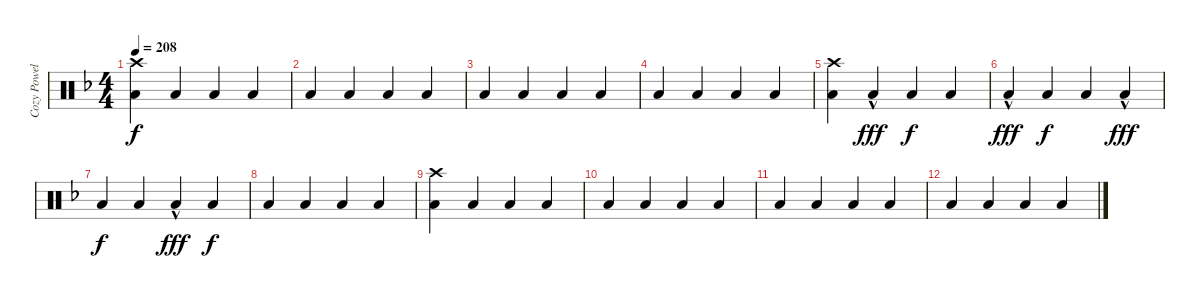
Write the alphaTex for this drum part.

\track ("Cozy Powell" "Cozy Powel") {instrument percussion}
\staff {score}
\articulation defaults
\ts (4 4)
\tempo 208
\clef neutral
\ks f
("Crash high (hit)" "Low Tom (hit)").4{dy f} "Low Tom (hit)".4{volume 10} "Low Tom (hit)".4 "Low Tom (hit)".4 |
"Low Tom (hit)".4 "Low Tom (hit)".4 "Low Tom (hit)".4 "Low Tom (hit)".4 |
"Low Tom (hit)".4 "Low Tom (hit)".4 "Low Tom (hit)".4 "Low Tom (hit)".4 |
"Low Tom (hit)".4 "Low Tom (hit)".4 "Low Tom (hit)".4 "Low Tom (hit)".4 |
("Low Tom (hit)" "Crash high (hit)").4{volume 13} "Low Tom (hit)"{hac}.4{dy fff} "Low Tom (hit)".4{dy f} "Low Tom (hit)".4 |
"Low Tom (hit)"{hac}.4{dy fff} "Low Tom (hit)".4{dy f} "Low Tom (hit)".4 "Low Tom (hit)"{hac}.4{dy fff} |
"Low Tom (hit)".4{dy f} "Low Tom (hit)".4 "Low Tom (hit)"{hac}.4{dy fff} "Low Tom (hit)".4{dy f} |
"Low Tom (hit)".4 "Low Tom (hit)".4 "Low Tom (hit)".4 "Low Tom (hit)".4 |
("Crash high (hit)" "Low Tom (hit)").4 "Low Tom (hit)".4 "Low Tom (hit)".4 "Low Tom (hit)".4 |
"Low Tom (hit)".4 "Low Tom (hit)".4 "Low Tom (hit)".4 "Low Tom (hit)".4 |
"Low Tom (hit)".4 "Low Tom (hit)".4 "Low Tom (hit)".4 "Low Tom (hit)".4 |
"Low Tom (hit)".4 "Low Tom (hit)".4 "Low Tom (hit)".4 "Low Tom (hit)".4
